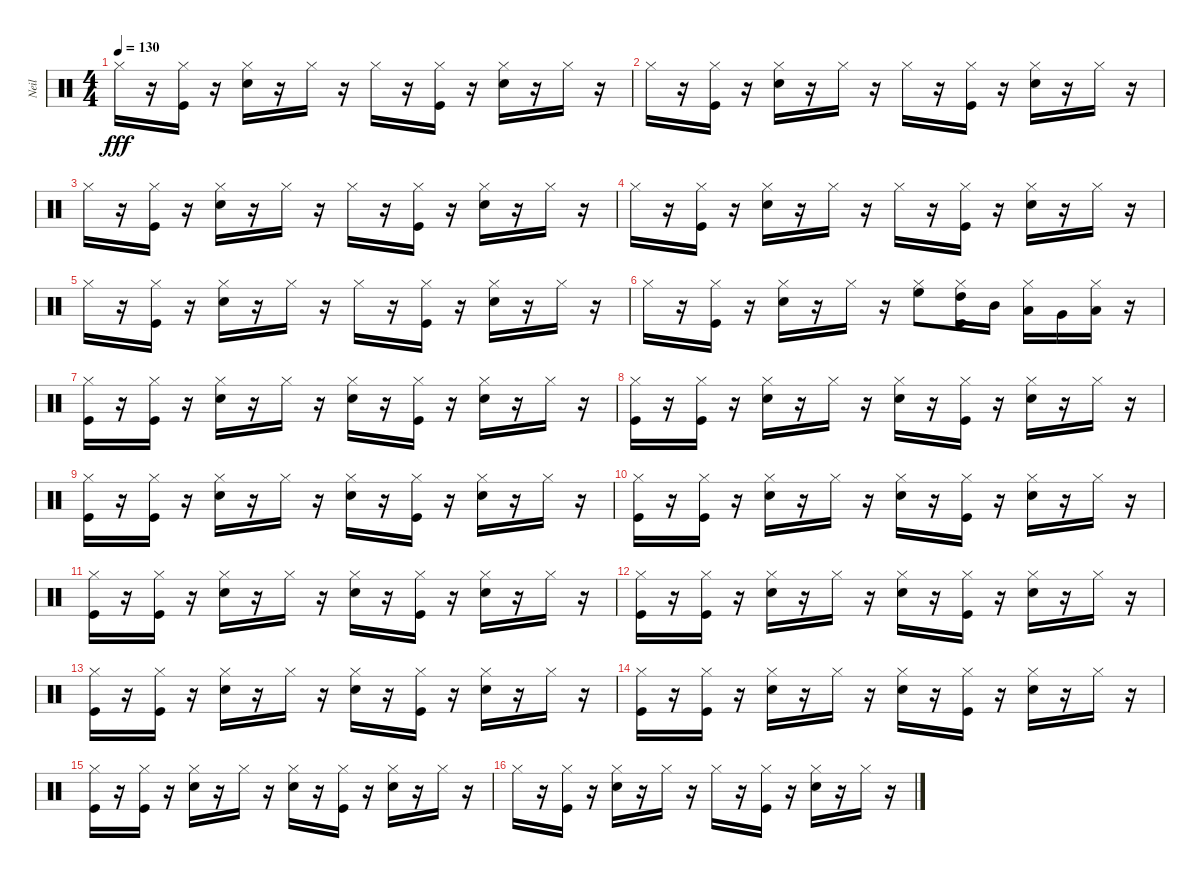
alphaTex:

\track ("Neil" "Neil") {instrument percussion}
\staff {score}
\articulation defaults
\ts (4 4)
\tempo 130
\clef neutral
\ks c "Hi-Hat (closed)".16{dy fff}
r.16 ("Kick (hit)" "Hi-Hat (closed)").16 r.16 ("Hi-Hat (closed)" "Electric Snare (hit)").16 r.16 "Hi-Hat (closed)".16 r.16 "Hi-Hat (closed)".16 r.16 ("Hi-Hat (closed)" "Kick (hit)").16 r.16 ("Hi-Hat (closed)" "Electric Snare (hit)").16 r.16 "Hi-Hat (closed)".16 r.16 |
"Hi-Hat (closed)".16 r.16 ("Kick (hit)" "Hi-Hat (closed)").16 r.16 ("Hi-Hat (closed)" "Electric Snare (hit)").16 r.16 "Hi-Hat (closed)".16 r.16 "Hi-Hat (closed)".16 r.16 ("Hi-Hat (closed)" "Kick (hit)").16 r.16 ("Hi-Hat (closed)" "Electric Snare (hit)").16 r.16 "Hi-Hat (closed)".16 r.16 |
"Hi-Hat (closed)".16 r.16 ("Kick (hit)" "Hi-Hat (closed)").16 r.16 ("Hi-Hat (closed)" "Electric Snare (hit)").16 r.16 "Hi-Hat (closed)".16 r.16 "Hi-Hat (closed)".16 r.16 ("Hi-Hat (closed)" "Kick (hit)").16 r.16 ("Hi-Hat (closed)" "Electric Snare (hit)").16 r.16 "Hi-Hat (closed)".16 r.16 |
"Hi-Hat (closed)".16 r.16 ("Kick (hit)" "Hi-Hat (closed)").16 r.16 ("Hi-Hat (closed)" "Electric Snare (hit)").16 r.16 "Hi-Hat (closed)".16 r.16 "Hi-Hat (closed)".16 r.16 ("Hi-Hat (closed)" "Kick (hit)").16 r.16 ("Hi-Hat (closed)" "Electric Snare (hit)").16 r.16 "Hi-Hat (closed)".16 r.16 |
"Hi-Hat (closed)".16 r.16 ("Kick (hit)" "Hi-Hat (closed)").16 r.16 ("Hi-Hat (closed)" "Electric Snare (hit)").16 r.16 "Hi-Hat (closed)".16 r.16 "Hi-Hat (closed)".16 r.16 ("Hi-Hat (closed)" "Kick (hit)").16 r.16 ("Hi-Hat (closed)" "Electric Snare (hit)").16 r.16 "Hi-Hat (closed)".16 r.16 |
"Hi-Hat (closed)".16 r.16 ("Kick (hit)" "Hi-Hat (closed)").16 r.16 ("Hi-Hat (closed)" "Electric Snare (hit)").16 r.16 "Hi-Hat (closed)".16 r.16 ("Hi-Hat (closed)" "High Floor Tom (hit)").8 ("Hi-Hat (closed)" "High Tom (hit)" "Kick (hit)").16 "Mid Tom (hit)".16 ("Hi-Hat (closed)" "Low Tom (hit)").16 "Very Low Tom (hit)".16 ("Hi-Hat (closed)" "Low Floor Tom (hit)").16 r.16 |
("Hi-Hat (closed)" "Kick (hit)").16 r.16 ("Kick (hit)" "Hi-Hat (closed)").16 r.16 ("Hi-Hat (closed)" "Electric Snare (hit)").16 r.16 "Hi-Hat (closed)".16 r.16 ("Hi-Hat (closed)" "Electric Snare (hit)").16 r.16 ("Hi-Hat (closed)" "Kick (hit)").16 r.16 ("Hi-Hat (closed)" "Electric Snare (hit)").16 r.16 "Hi-Hat (closed)".16 r.16 |
("Hi-Hat (closed)" "Kick (hit)").16 r.16 ("Kick (hit)" "Hi-Hat (closed)").16 r.16 ("Hi-Hat (closed)" "Electric Snare (hit)").16 r.16 "Hi-Hat (closed)".16 r.16 ("Hi-Hat (closed)" "Electric Snare (hit)").16 r.16 ("Hi-Hat (closed)" "Kick (hit)").16 r.16 ("Hi-Hat (closed)" "Electric Snare (hit)").16 r.16 "Hi-Hat (closed)".16 r.16 |
("Hi-Hat (closed)" "Kick (hit)").16 r.16 ("Kick (hit)" "Hi-Hat (closed)").16 r.16 ("Hi-Hat (closed)" "Electric Snare (hit)").16 r.16 "Hi-Hat (closed)".16 r.16 ("Hi-Hat (closed)" "Electric Snare (hit)").16 r.16 ("Hi-Hat (closed)" "Kick (hit)").16 r.16 ("Hi-Hat (closed)" "Electric Snare (hit)").16 r.16 "Hi-Hat (closed)".16 r.16 |
("Hi-Hat (closed)" "Kick (hit)").16 r.16 ("Kick (hit)" "Hi-Hat (closed)").16 r.16 ("Hi-Hat (closed)" "Electric Snare (hit)").16 r.16 "Hi-Hat (closed)".16 r.16 ("Hi-Hat (closed)" "Electric Snare (hit)").16 r.16 ("Hi-Hat (closed)" "Kick (hit)").16 r.16 ("Hi-Hat (closed)" "Electric Snare (hit)").16 r.16 "Hi-Hat (closed)".16 r.16 |
("Hi-Hat (closed)" "Kick (hit)").16 r.16 ("Kick (hit)" "Hi-Hat (closed)").16 r.16 ("Hi-Hat (closed)" "Electric Snare (hit)").16 r.16 "Hi-Hat (closed)".16 r.16 ("Hi-Hat (closed)" "Electric Snare (hit)").16 r.16 ("Hi-Hat (closed)" "Kick (hit)").16 r.16 ("Hi-Hat (closed)" "Electric Snare (hit)").16 r.16 "Hi-Hat (closed)".16 r.16 |
("Hi-Hat (closed)" "Kick (hit)").16 r.16 ("Kick (hit)" "Hi-Hat (closed)").16 r.16 ("Hi-Hat (closed)" "Electric Snare (hit)").16 r.16 "Hi-Hat (closed)".16 r.16 ("Hi-Hat (closed)" "Electric Snare (hit)").16 r.16 ("Hi-Hat (closed)" "Kick (hit)").16 r.16 ("Hi-Hat (closed)" "Electric Snare (hit)").16 r.16 "Hi-Hat (closed)".16 r.16 |
("Hi-Hat (closed)" "Kick (hit)").16 r.16 ("Kick (hit)" "Hi-Hat (closed)").16 r.16 ("Hi-Hat (closed)" "Electric Snare (hit)").16 r.16 "Hi-Hat (closed)".16 r.16 ("Hi-Hat (closed)" "Electric Snare (hit)").16 r.16 ("Hi-Hat (closed)" "Kick (hit)").16 r.16 ("Hi-Hat (closed)" "Electric Snare (hit)").16 r.16 "Hi-Hat (closed)".16 r.16 |
("Hi-Hat (closed)" "Kick (hit)").16 r.16 ("Kick (hit)" "Hi-Hat (closed)").16 r.16 ("Hi-Hat (closed)" "Electric Snare (hit)").16 r.16 "Hi-Hat (closed)".16 r.16 ("Hi-Hat (closed)" "Electric Snare (hit)").16 r.16 ("Hi-Hat (closed)" "Kick (hit)").16 r.16 ("Hi-Hat (closed)" "Electric Snare (hit)").16 r.16 "Hi-Hat (closed)".16 r.16 |
("Hi-Hat (closed)" "Kick (hit)").16 r.16 ("Kick (hit)" "Hi-Hat (closed)").16 r.16 ("Hi-Hat (closed)" "Electric Snare (hit)").16 r.16 "Hi-Hat (closed)".16 r.16 ("Hi-Hat (closed)" "Electric Snare (hit)").16 r.16 ("Hi-Hat (closed)" "Kick (hit)").16 r.16 ("Hi-Hat (closed)" "Electric Snare (hit)").16 r.16 "Hi-Hat (closed)".16 r.16 |
"Hi-Hat (closed)".16 r.16 ("Hi-Hat (closed)" "Kick (hit)").16 r.16 ("Hi-Hat (closed)" "Electric Snare (hit)").16 r.16 "Hi-Hat (closed)".16 r.16 "Hi-Hat (closed)".16 r.16 ("Kick (hit)" "Hi-Hat (closed)").16 r.16 ("Electric Snare (hit)" "Hi-Hat (closed)").16 r.16 "Hi-Hat (closed)".16 r.16
